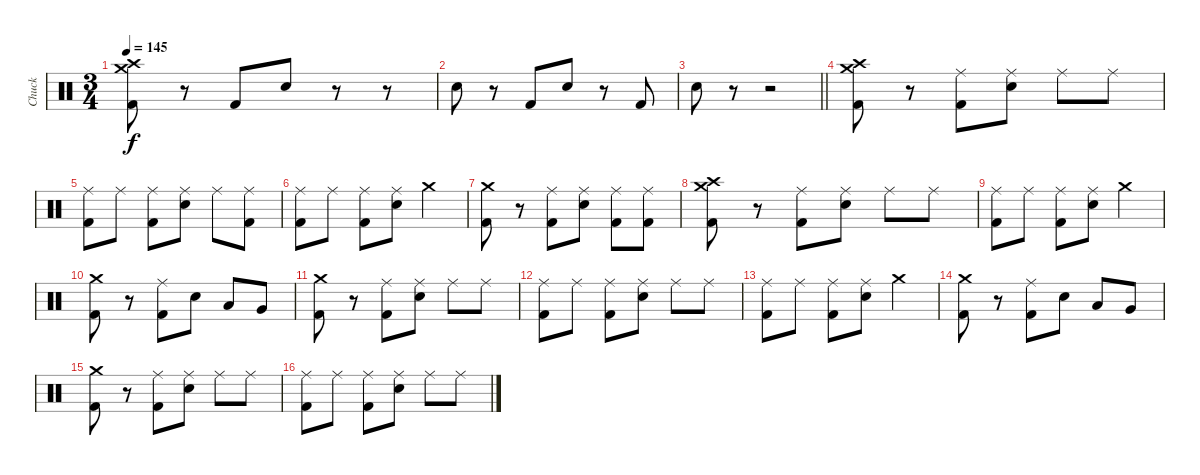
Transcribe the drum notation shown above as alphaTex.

\track ("Chuck" "Chuck") {instrument percussion}
\staff {score}
\articulation defaults
\ts (3 4)
\tempo 145
\clef neutral
\ks c
("Crash medium (hit)" "Crash high (hit)" "Kick (hit) 2").8{dy f} r.8 "Kick (hit) 2".8 "Electric Snare (hit)".8 r.8 r.8 |
"Electric Snare (hit)".8 r.8 "Kick (hit) 2".8 "Electric Snare (hit)".8 r.8 "Kick (hit) 2".8 |
\barLineRight lightlight "Electric Snare (hit)".8
r.8 r.2 |
("Crash medium (hit)" "Crash high (hit)" "Kick (hit) 2").8 r.8 ("Ride (middle)" "Kick (hit) 2").8 ("Ride (middle)" "Electric Snare (hit)").8 "Ride (middle)".8 "Ride (middle)".8 |
("Ride (middle)" "Kick (hit) 2").8 "Ride (middle)".8 ("Ride (middle)" "Kick (hit) 2").8 ("Ride (middle)" "Electric Snare (hit)").8 "Ride (middle)".8 ("Ride (middle)" "Kick (hit) 2").8 |
("Ride (middle)" "Kick (hit) 2").8 "Ride (middle)".8 ("Ride (middle)" "Kick (hit) 2").8 ("Ride (middle)" "Electric Snare (hit)").8 "Crash medium (hit)".4 |
("Crash medium (hit)" "Kick (hit) 2").8 r.8 ("Ride (middle)" "Kick (hit) 2").8 ("Ride (middle)" "Electric Snare (hit)").8 ("Ride (middle)" "Kick (hit) 2").8 ("Ride (middle)" "Kick (hit) 2").8 |
("Crash medium (hit)" "Crash high (hit)" "Kick (hit) 2").8 r.8 ("Ride (middle)" "Kick (hit) 2").8 ("Ride (middle)" "Electric Snare (hit)").8 "Ride (middle)".8 "Ride (middle)".8 |
("Ride (middle)" "Kick (hit) 2").8 "Ride (middle)".8 ("Ride (middle)" "Kick (hit) 2").8 ("Ride (middle)" "Electric Snare (hit)").8 "Crash medium (hit)".4 |
("Crash medium (hit)" "Kick (hit) 2").8 r.8 ("Ride (middle)" "Kick (hit) 2").8 "Electric Snare (hit)".8 "Low Tom (hit)".8 "Very Low Tom (hit)".8 |
("Crash medium (hit)" "Kick (hit) 2").8 r.8 ("Ride (middle)" "Kick (hit) 2").8 ("Ride (middle)" "Electric Snare (hit)").8 "Ride (middle)".8 "Ride (middle)".8 |
("Ride (middle)" "Kick (hit) 2").8 "Ride (middle)".8 ("Ride (middle)" "Kick (hit) 2").8 ("Ride (middle)" "Electric Snare (hit)").8 "Ride (middle)".8 "Ride (middle)".8 |
("Ride (middle)" "Kick (hit) 2").8 "Ride (middle)".8 ("Ride (middle)" "Kick (hit) 2").8 ("Ride (middle)" "Electric Snare (hit)").8 "Crash medium (hit)".4 |
("Crash medium (hit)" "Kick (hit) 2").8 r.8 ("Ride (middle)" "Kick (hit) 2").8 "Electric Snare (hit)".8 "Low Tom (hit)".8 "Very Low Tom (hit)".8 |
("Crash medium (hit)" "Kick (hit) 2").8 r.8 ("Ride (middle)" "Kick (hit) 2").8 ("Ride (middle)" "Electric Snare (hit)").8 "Ride (middle)".8 "Ride (middle)".8 |
("Ride (middle)" "Kick (hit) 2").8 "Ride (middle)".8 ("Ride (middle)" "Kick (hit) 2").8 ("Ride (middle)" "Electric Snare (hit)").8 "Ride (middle)".8 "Ride (middle)".8
